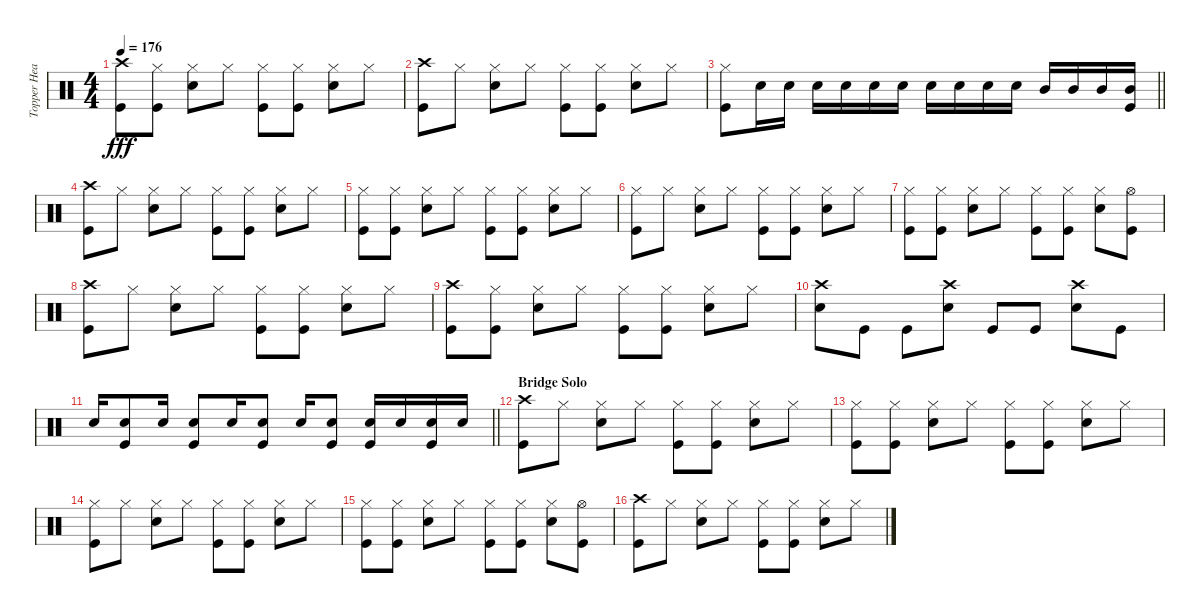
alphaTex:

\track ("Topper Headon - Drums" "Topper Hea") {instrument percussion}
\staff {score}
\articulation defaults
\ts (4 4)
\tempo 176
\clef neutral
\ks c
("Kick (hit)" "Crash high (hit)").8{dy fff} ("Kick (hit)" "Hi-Hat (closed)").8 ("Hi-Hat (closed)" "Snare (hit) 2").8 "Hi-Hat (closed)".8 ("Kick (hit)" "Hi-Hat (closed)").8 ("Kick (hit)" "Hi-Hat (closed)").8 ("Hi-Hat (closed)" "Snare (hit) 2").8 "Hi-Hat (closed)".8 |
("Crash high (hit)" "Kick (hit)").8 "Hi-Hat (closed)".8 ("Hi-Hat (closed)" "Snare (hit) 2").8 "Hi-Hat (closed)".8 ("Hi-Hat (closed)" "Kick (hit)").8 ("Hi-Hat (closed)" "Kick (hit)").8 ("Hi-Hat (closed)" "Snare (hit) 2").8 "Hi-Hat (closed)".8 |
\barLineRight lightlight
("Kick (hit)" "Hi-Hat (closed)").8 "Snare (hit) 2".16 "Snare (hit) 2".16 "Snare (hit) 2".16 "Snare (hit) 2".16 "Snare (hit) 2".16 "Snare (hit) 2".16 "Snare (hit) 2".16 "Snare (hit) 2".16 "Snare (hit) 2".16 "Snare (hit) 2".16 "Mid Tom (hit)".16 "Mid Tom (hit)".16 "Mid Tom (hit)".16 ("Mid Tom (hit)" "Kick (hit)").16 |
("Crash high (hit)" "Kick (hit)").8 "Hi-Hat (closed)".8 ("Hi-Hat (closed)" "Snare (hit) 2").8 "Hi-Hat (closed)".8 ("Hi-Hat (closed)" "Kick (hit)").8 ("Hi-Hat (closed)" "Kick (hit)").8 ("Hi-Hat (closed)" "Snare (hit) 2").8 "Hi-Hat (closed)".8 |
("Kick (hit)" "Hi-Hat (closed)").8 ("Kick (hit)" "Hi-Hat (closed)").8 ("Hi-Hat (closed)" "Snare (hit) 2").8 "Hi-Hat (closed)".8 ("Kick (hit)" "Hi-Hat (closed)").8 ("Kick (hit)" "Hi-Hat (closed)").8 ("Hi-Hat (closed)" "Snare (hit) 2").8 "Hi-Hat (closed)".8 |
("Hi-Hat (closed)" "Kick (hit)").8 "Hi-Hat (closed)".8 ("Hi-Hat (closed)" "Snare (hit) 2").8 "Hi-Hat (closed)".8 ("Hi-Hat (closed)" "Kick (hit)").8 ("Hi-Hat (closed)" "Kick (hit)").8 ("Hi-Hat (closed)" "Snare (hit) 2").8 "Hi-Hat (closed)".8 |
("Kick (hit)" "Hi-Hat (closed)").8 ("Kick (hit)" "Hi-Hat (closed)").8 ("Hi-Hat (closed)" "Snare (hit) 2").8 "Hi-Hat (closed)".8 ("Kick (hit)" "Hi-Hat (closed)").8 ("Kick (hit)" "Hi-Hat (closed)").8 ("Hi-Hat (closed)" "Snare (hit) 2").8 ("Kick (hit)" "Hi-Hat (open)").8 |
("Crash high (hit)" "Kick (hit)").8 "Hi-Hat (closed)".8 ("Hi-Hat (closed)" "Snare (hit) 2").8 "Hi-Hat (closed)".8 ("Hi-Hat (closed)" "Kick (hit)").8 ("Hi-Hat (closed)" "Kick (hit)").8 ("Hi-Hat (closed)" "Snare (hit) 2").8 "Hi-Hat (closed)".8 |
("Kick (hit)" "Crash high (hit)").8 ("Kick (hit)" "Hi-Hat (closed)").8 ("Hi-Hat (closed)" "Snare (hit) 2").8 "Hi-Hat (closed)".8 ("Kick (hit)" "Hi-Hat (closed)").8 ("Kick (hit)" "Hi-Hat (closed)").8 ("Hi-Hat (closed)" "Snare (hit) 2").8 "Hi-Hat (closed)".8 |
("Snare (hit) 2" "Crash high (hit)").8 "Kick (hit)".8 "Kick (hit)".8 ("Snare (hit) 2" "Crash high (hit)").8 "Kick (hit)".8 "Kick (hit)".8 ("Snare (hit) 2" "Crash high (hit)").8 "Kick (hit)".8 |
\barLineRight lightlight "Snare (hit) 2".16
("Snare (hit) 2" "Kick (hit)").8 "Snare (hit) 2".16 ("Snare (hit) 2" "Kick (hit)").8 "Snare (hit) 2".16 ("Snare (hit) 2" "Kick (hit)").8 "Snare (hit) 2".16 ("Snare (hit) 2" "Kick (hit)").8 ("Snare (hit) 2" "Kick (hit)").16 "Snare (hit) 2".16 ("Snare (hit) 2" "Kick (hit)").16 "Snare (hit) 2".16 |
\section ("" "Bridge Solo")
("Crash high (hit)" "Kick (hit)").8 "Hi-Hat (closed)".8 ("Hi-Hat (closed)" "Snare (hit) 2").8 "Hi-Hat (closed)".8 ("Hi-Hat (closed)" "Kick (hit)").8 ("Hi-Hat (closed)" "Kick (hit)").8 ("Hi-Hat (closed)" "Snare (hit) 2").8 "Hi-Hat (closed)".8 |
("Kick (hit)" "Hi-Hat (closed)").8 ("Kick (hit)" "Hi-Hat (closed)").8 ("Hi-Hat (closed)" "Snare (hit) 2").8 "Hi-Hat (closed)".8 ("Kick (hit)" "Hi-Hat (closed)").8 ("Kick (hit)" "Hi-Hat (closed)").8 ("Hi-Hat (closed)" "Snare (hit) 2").8 "Hi-Hat (closed)".8 |
("Hi-Hat (closed)" "Kick (hit)").8 "Hi-Hat (closed)".8 ("Hi-Hat (closed)" "Snare (hit) 2").8 "Hi-Hat (closed)".8 ("Hi-Hat (closed)" "Kick (hit)").8 ("Hi-Hat (closed)" "Kick (hit)").8 ("Hi-Hat (closed)" "Snare (hit) 2").8 "Hi-Hat (closed)".8 |
("Kick (hit)" "Hi-Hat (closed)").8 ("Kick (hit)" "Hi-Hat (closed)").8 ("Hi-Hat (closed)" "Snare (hit) 2").8 "Hi-Hat (closed)".8 ("Kick (hit)" "Hi-Hat (closed)").8 ("Kick (hit)" "Hi-Hat (closed)").8 ("Hi-Hat (closed)" "Snare (hit) 2").8 ("Kick (hit)" "Hi-Hat (open)").8 |
("Crash high (hit)" "Kick (hit)").8 "Hi-Hat (closed)".8 ("Hi-Hat (closed)" "Snare (hit) 2").8 "Hi-Hat (closed)".8 ("Hi-Hat (closed)" "Kick (hit)").8 ("Hi-Hat (closed)" "Kick (hit)").8 ("Hi-Hat (closed)" "Snare (hit) 2").8 "Hi-Hat (closed)".8
